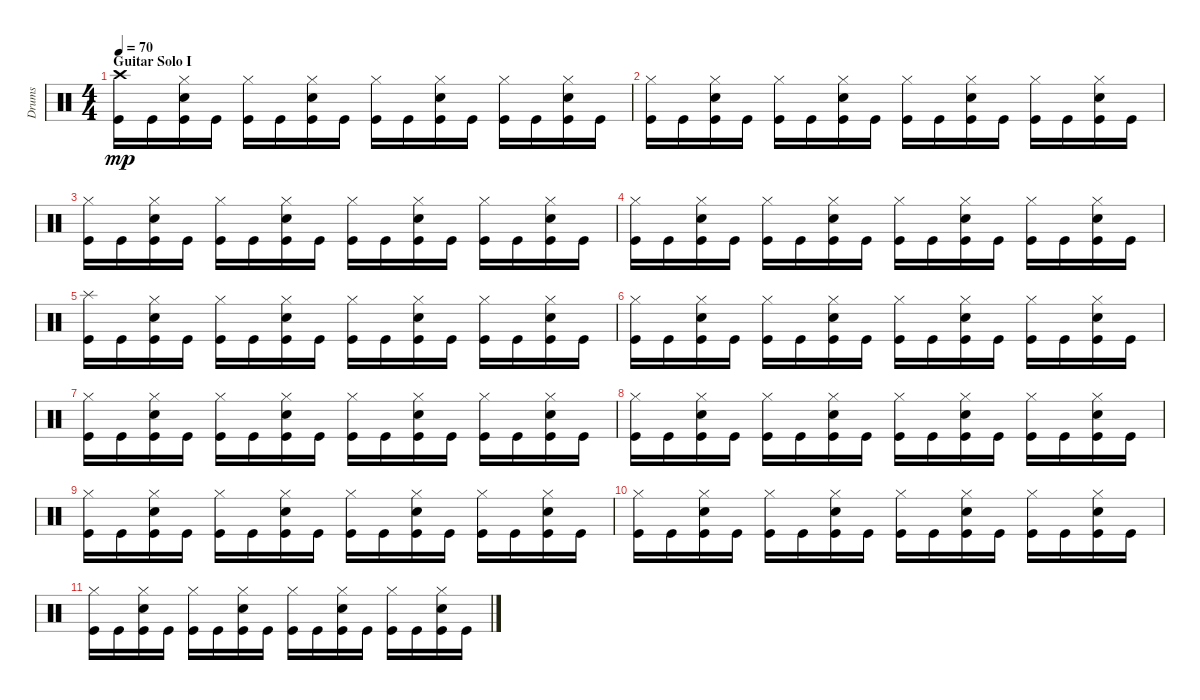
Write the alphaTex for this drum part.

\track ("Drums" "Drums") {instrument percussion}
\staff {score}
\articulation defaults
\ts (4 4)
\section ("" "Guitar Solo I")
\tempo 70
\clef neutral
\ks c
("Crash high (hit)" "Kick (hit)").16{dy mp} "Kick (hit)".16 ("Hi-Hat (closed)" "Electric Snare (hit)" "Kick (hit)").16 "Kick (hit)".16 ("Hi-Hat (closed)" "Kick (hit)").16 "Kick (hit)".16 ("Hi-Hat (closed)" "Electric Snare (hit)" "Kick (hit)").16 "Kick (hit)".16 ("Hi-Hat (closed)" "Kick (hit)").16 "Kick (hit)".16 ("Hi-Hat (closed)" "Electric Snare (hit)" "Kick (hit)").16 "Kick (hit)".16 ("Hi-Hat (closed)" "Kick (hit)").16 "Kick (hit)".16 ("Hi-Hat (closed)" "Electric Snare (hit)" "Kick (hit)").16 "Kick (hit)".16 |
("Hi-Hat (closed)" "Kick (hit)").16 "Kick (hit)".16 ("Hi-Hat (closed)" "Electric Snare (hit)" "Kick (hit)").16 "Kick (hit)".16 ("Hi-Hat (closed)" "Kick (hit)").16 "Kick (hit)".16 ("Hi-Hat (closed)" "Electric Snare (hit)" "Kick (hit)").16 "Kick (hit)".16 ("Hi-Hat (closed)" "Kick (hit)").16 "Kick (hit)".16 ("Hi-Hat (closed)" "Electric Snare (hit)" "Kick (hit)").16 "Kick (hit)".16 ("Hi-Hat (closed)" "Kick (hit)").16 "Kick (hit)".16 ("Hi-Hat (closed)" "Electric Snare (hit)" "Kick (hit)").16 "Kick (hit)".16 |
("Hi-Hat (closed)" "Kick (hit)").16 "Kick (hit)".16 ("Hi-Hat (closed)" "Electric Snare (hit)" "Kick (hit)").16 "Kick (hit)".16 ("Hi-Hat (closed)" "Kick (hit)").16 "Kick (hit)".16 ("Hi-Hat (closed)" "Electric Snare (hit)" "Kick (hit)").16 "Kick (hit)".16 ("Hi-Hat (closed)" "Kick (hit)").16 "Kick (hit)".16 ("Hi-Hat (closed)" "Electric Snare (hit)" "Kick (hit)").16 "Kick (hit)".16 ("Hi-Hat (closed)" "Kick (hit)").16 "Kick (hit)".16 ("Hi-Hat (closed)" "Electric Snare (hit)" "Kick (hit)").16 "Kick (hit)".16 |
("Hi-Hat (closed)" "Kick (hit)").16 "Kick (hit)".16 ("Hi-Hat (closed)" "Electric Snare (hit)" "Kick (hit)").16 "Kick (hit)".16 ("Hi-Hat (closed)" "Kick (hit)").16 "Kick (hit)".16 ("Hi-Hat (closed)" "Electric Snare (hit)" "Kick (hit)").16 "Kick (hit)".16 ("Hi-Hat (closed)" "Kick (hit)").16 "Kick (hit)".16 ("Hi-Hat (closed)" "Electric Snare (hit)" "Kick (hit)").16 "Kick (hit)".16 ("Hi-Hat (closed)" "Kick (hit)").16 "Kick (hit)".16 ("Hi-Hat (closed)" "Electric Snare (hit)" "Kick (hit)").16 "Kick (hit)".16 |
("Splash (hit)" "Kick (hit)").16 "Kick (hit)".16 ("Hi-Hat (closed)" "Electric Snare (hit)" "Kick (hit)").16 "Kick (hit)".16 ("Hi-Hat (closed)" "Kick (hit)").16 "Kick (hit)".16 ("Hi-Hat (closed)" "Electric Snare (hit)" "Kick (hit)").16 "Kick (hit)".16 ("Hi-Hat (closed)" "Kick (hit)").16 "Kick (hit)".16 ("Hi-Hat (closed)" "Electric Snare (hit)" "Kick (hit)").16 "Kick (hit)".16 ("Hi-Hat (closed)" "Kick (hit)").16 "Kick (hit)".16 ("Hi-Hat (closed)" "Electric Snare (hit)" "Kick (hit)").16 "Kick (hit)".16 |
("Hi-Hat (closed)" "Kick (hit)").16 "Kick (hit)".16 ("Hi-Hat (closed)" "Electric Snare (hit)" "Kick (hit)").16 "Kick (hit)".16 ("Hi-Hat (closed)" "Kick (hit)").16 "Kick (hit)".16 ("Hi-Hat (closed)" "Electric Snare (hit)" "Kick (hit)").16 "Kick (hit)".16 ("Hi-Hat (closed)" "Kick (hit)").16 "Kick (hit)".16 ("Hi-Hat (closed)" "Electric Snare (hit)" "Kick (hit)").16 "Kick (hit)".16 ("Hi-Hat (closed)" "Kick (hit)").16 "Kick (hit)".16 ("Hi-Hat (closed)" "Electric Snare (hit)" "Kick (hit)").16 "Kick (hit)".16 |
("Hi-Hat (closed)" "Kick (hit)").16 "Kick (hit)".16 ("Hi-Hat (closed)" "Electric Snare (hit)" "Kick (hit)").16 "Kick (hit)".16 ("Hi-Hat (closed)" "Kick (hit)").16 "Kick (hit)".16 ("Hi-Hat (closed)" "Electric Snare (hit)" "Kick (hit)").16 "Kick (hit)".16 ("Hi-Hat (closed)" "Kick (hit)").16 "Kick (hit)".16 ("Hi-Hat (closed)" "Electric Snare (hit)" "Kick (hit)").16 "Kick (hit)".16 ("Hi-Hat (closed)" "Kick (hit)").16 "Kick (hit)".16 ("Hi-Hat (closed)" "Electric Snare (hit)" "Kick (hit)").16 "Kick (hit)".16 |
("Hi-Hat (closed)" "Kick (hit)").16 "Kick (hit)".16 ("Hi-Hat (closed)" "Electric Snare (hit)" "Kick (hit)").16 "Kick (hit)".16 ("Hi-Hat (closed)" "Kick (hit)").16 "Kick (hit)".16 ("Hi-Hat (closed)" "Electric Snare (hit)" "Kick (hit)").16 "Kick (hit)".16 ("Hi-Hat (closed)" "Kick (hit)").16 "Kick (hit)".16 ("Hi-Hat (closed)" "Electric Snare (hit)" "Kick (hit)").16 "Kick (hit)".16 ("Hi-Hat (closed)" "Kick (hit)").16 "Kick (hit)".16 ("Hi-Hat (closed)" "Electric Snare (hit)" "Kick (hit)").16 "Kick (hit)".16 |
("Hi-Hat (closed)" "Kick (hit)").16 "Kick (hit)".16 ("Hi-Hat (closed)" "Electric Snare (hit)" "Kick (hit)").16 "Kick (hit)".16 ("Hi-Hat (closed)" "Kick (hit)").16 "Kick (hit)".16 ("Hi-Hat (closed)" "Electric Snare (hit)" "Kick (hit)").16 "Kick (hit)".16 ("Hi-Hat (closed)" "Kick (hit)").16 "Kick (hit)".16 ("Hi-Hat (closed)" "Electric Snare (hit)" "Kick (hit)").16 "Kick (hit)".16 ("Hi-Hat (closed)" "Kick (hit)").16 "Kick (hit)".16 ("Hi-Hat (closed)" "Electric Snare (hit)" "Kick (hit)").16 "Kick (hit)".16 |
("Hi-Hat (closed)" "Kick (hit)").16 "Kick (hit)".16 ("Hi-Hat (closed)" "Electric Snare (hit)" "Kick (hit)").16 "Kick (hit)".16 ("Hi-Hat (closed)" "Kick (hit)").16 "Kick (hit)".16 ("Hi-Hat (closed)" "Electric Snare (hit)" "Kick (hit)").16 "Kick (hit)".16 ("Hi-Hat (closed)" "Kick (hit)").16 "Kick (hit)".16 ("Hi-Hat (closed)" "Electric Snare (hit)" "Kick (hit)").16 "Kick (hit)".16 ("Hi-Hat (closed)" "Kick (hit)").16 "Kick (hit)".16 ("Hi-Hat (closed)" "Electric Snare (hit)" "Kick (hit)").16 "Kick (hit)".16 |
("Hi-Hat (closed)" "Kick (hit)").16 "Kick (hit)".16 ("Hi-Hat (closed)" "Electric Snare (hit)" "Kick (hit)").16 "Kick (hit)".16 ("Hi-Hat (closed)" "Kick (hit)").16 "Kick (hit)".16 ("Hi-Hat (closed)" "Electric Snare (hit)" "Kick (hit)").16 "Kick (hit)".16 ("Hi-Hat (closed)" "Kick (hit)").16 "Kick (hit)".16 ("Hi-Hat (closed)" "Electric Snare (hit)" "Kick (hit)").16 "Kick (hit)".16 ("Hi-Hat (closed)" "Kick (hit)").16 "Kick (hit)".16 ("Hi-Hat (closed)" "Electric Snare (hit)" "Kick (hit)").16 "Kick (hit)".16
